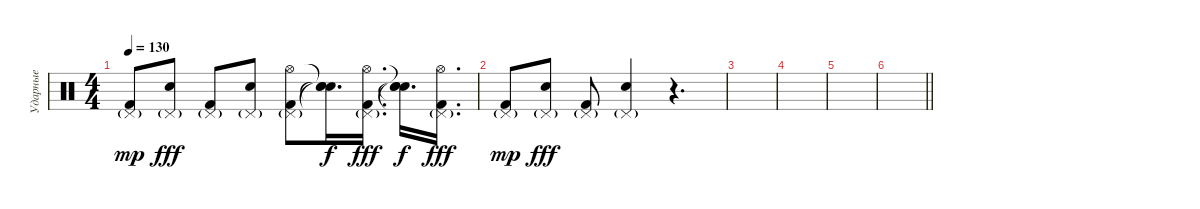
\track ("Ударные" "Ударные") {instrument percussion}
\staff {score}
\articulation defaults
\ts (4 4)
\tempo 130
\clef neutral
\ks c
("Pedal Hi-Hat (hit)"{g} "Kick (hit) 2").8{dy mp} ("Pedal Hi-Hat (hit)"{g} "Electric Snare (hit)").8{dy fff} ("Pedal Hi-Hat (hit)"{g} "Kick (hit) 2").8 ("Pedal Hi-Hat (hit)"{g} "Electric Snare (hit)").8 ("Pedal Hi-Hat (hit)"{g} "Hi-Hat (open)" "Kick (hit) 2").8 ("Snare (hit)"{t} "Snare (hit)"{t} "Snare (hit)"{t}).16{d dy f} ("Pedal Hi-Hat (hit)"{g} "Hi-Hat (open)" "Kick (hit) 2").16{d dy fff} ("Snare (hit)"{t} "Snare (hit)"{t} "Snare (hit)"{t}).16{d dy f} ("Pedal Hi-Hat (hit)"{g} "Hi-Hat (open)" "Kick (hit) 2").16{d dy fff} |
("Pedal Hi-Hat (hit)"{g} "Kick (hit) 2").8{dy mp} ("Pedal Hi-Hat (hit)"{g} "Electric Snare (hit)").8{dy fff} ("Pedal Hi-Hat (hit)"{g} "Kick (hit) 2").8 ("Pedal Hi-Hat (hit)"{g} "Electric Snare (hit)").4 r.4{d} |
|
|
|
\barLineRight lightlight
